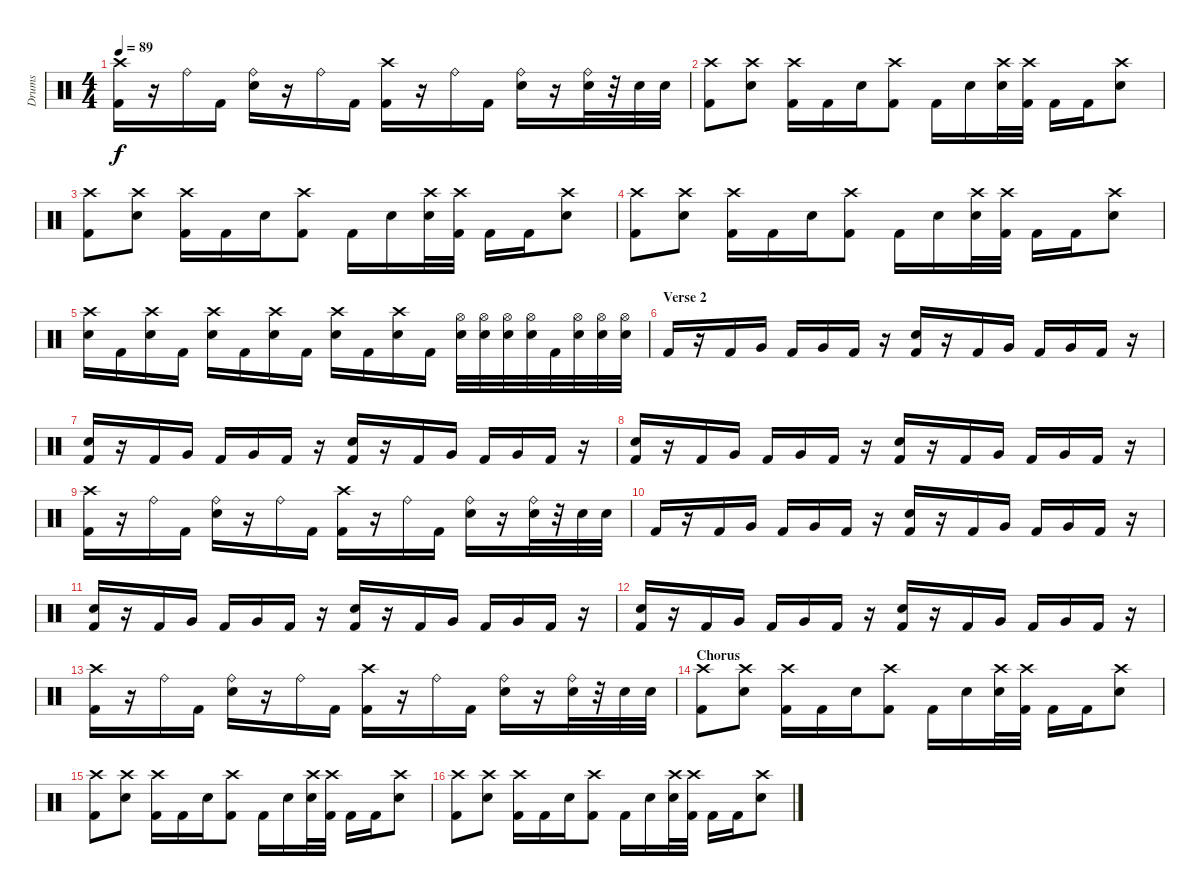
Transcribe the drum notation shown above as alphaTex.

\track ("Drums" "Drums") {instrument percussion}
\staff {score}
\articulation defaults
\ts (4 4)
\tempo 89
\clef neutral
\ks c
("Crash high (hit)" "Kick (hit) 2").16{dy f} r.16 "Ride (bell)".16 "Kick (hit) 2".16 ("Ride (bell)" "Electric Snare (hit)").16 r.16 "Ride (bell)".16 "Kick (hit) 2".16 ("Crash high (hit)" "Kick (hit) 2").16 r.16 "Ride (bell)".16 "Kick (hit) 2".16 ("Ride (bell)" "Electric Snare (hit)").16 r.16 ("Ride (bell)" "Electric Snare (hit)").32 r.32 "Electric Snare (hit)".32 "Electric Snare (hit)".32 |
("Crash high (hit)" "Kick (hit) 2").8 ("Crash high (hit)" "Electric Snare (hit)").8 ("Crash high (hit)" "Kick (hit) 2").16 "Kick (hit) 2".16 "Electric Snare (hit)".16 ("Crash high (hit)" "Kick (hit) 2").8 "Kick (hit) 2".16 "Electric Snare (hit)".16 ("Crash high (hit)" "Electric Snare (hit)").32 ("Crash high (hit)" "Kick (hit) 2").32 "Kick (hit) 2".16 "Kick (hit) 2".16 ("Crash high (hit)" "Electric Snare (hit)").8 |
("Crash high (hit)" "Kick (hit) 2").8 ("Crash high (hit)" "Electric Snare (hit)").8 ("Crash high (hit)" "Kick (hit) 2").16 "Kick (hit) 2".16 "Electric Snare (hit)".16 ("Crash high (hit)" "Kick (hit) 2").8 "Kick (hit) 2".16 "Electric Snare (hit)".16 ("Crash high (hit)" "Electric Snare (hit)").32 ("Crash high (hit)" "Kick (hit) 2").32 "Kick (hit) 2".16 "Kick (hit) 2".16 ("Crash high (hit)" "Electric Snare (hit)").8 |
("Crash high (hit)" "Kick (hit) 2").8 ("Crash high (hit)" "Electric Snare (hit)").8 ("Crash high (hit)" "Kick (hit) 2").16 "Kick (hit) 2".16 "Electric Snare (hit)".16 ("Crash high (hit)" "Kick (hit) 2").8 "Kick (hit) 2".16 "Electric Snare (hit)".16 ("Crash high (hit)" "Electric Snare (hit)").32 ("Crash high (hit)" "Kick (hit) 2").32 "Kick (hit) 2".16 "Kick (hit) 2".16 ("Crash high (hit)" "Electric Snare (hit)").8 |
("Crash high (hit)" "Electric Snare (hit)").16 "Kick (hit) 2".16 ("Crash high (hit)" "Electric Snare (hit)").16 "Kick (hit) 2".16 ("Crash high (hit)" "Electric Snare (hit)").16 "Kick (hit) 2".16 ("Crash high (hit)" "Electric Snare (hit)").16 "Kick (hit) 2".16 ("Crash high (hit)" "Electric Snare (hit)").16 "Kick (hit) 2".16 ("Crash high (hit)" "Electric Snare (hit)").16 "Kick (hit) 2".16 ("Hi-Hat (open)" "Electric Snare (hit)").32 ("Hi-Hat (open)" "Electric Snare (hit)").32 ("Hi-Hat (open)" "Electric Snare (hit)").32 ("Hi-Hat (open)" "Electric Snare (hit)").32 "Kick (hit) 2".32 ("Hi-Hat (open)" "Electric Snare (hit)").32 ("Hi-Hat (open)" "Electric Snare (hit)").32 ("Hi-Hat (open)" "Electric Snare (hit)").32 |
\section ("" "Verse 2")
"Kick (hit) 2".16 r.16 "Kick (hit) 2".16 "Very Low Tom (hit)".16 "Kick (hit) 2".16 "Very Low Tom (hit)".16 "Kick (hit) 2".16 r.16 ("Electric Snare (hit)" "Kick (hit) 2").16 r.16 "Kick (hit) 2".16 "Very Low Tom (hit)".16 "Kick (hit) 2".16 "Very Low Tom (hit)".16 "Kick (hit) 2".16 r.16 |
("Electric Snare (hit)" "Kick (hit) 2").16 r.16 "Kick (hit) 2".16 "Very Low Tom (hit)".16 "Kick (hit) 2".16 "Very Low Tom (hit)".16 "Kick (hit) 2".16 r.16 ("Electric Snare (hit)" "Kick (hit) 2").16 r.16 "Kick (hit) 2".16 "Very Low Tom (hit)".16 "Kick (hit) 2".16 "Very Low Tom (hit)".16 "Kick (hit) 2".16 r.16 |
("Electric Snare (hit)" "Kick (hit) 2").16 r.16 "Kick (hit) 2".16 "Very Low Tom (hit)".16 "Kick (hit) 2".16 "Very Low Tom (hit)".16 "Kick (hit) 2".16 r.16 ("Electric Snare (hit)" "Kick (hit) 2").16 r.16 "Kick (hit) 2".16 "Very Low Tom (hit)".16 "Kick (hit) 2".16 "Very Low Tom (hit)".16 "Kick (hit) 2".16 r.16 |
("Crash high (hit)" "Kick (hit) 2").16 r.16 "Ride (bell)".16 "Kick (hit) 2".16 ("Ride (bell)" "Electric Snare (hit)").16 r.16 "Ride (bell)".16 "Kick (hit) 2".16 ("Crash high (hit)" "Kick (hit) 2").16 r.16 "Ride (bell)".16 "Kick (hit) 2".16 ("Ride (bell)" "Electric Snare (hit)").16 r.16 ("Ride (bell)" "Electric Snare (hit)").32 r.32 "Electric Snare (hit)".32 "Electric Snare (hit)".32 |
"Kick (hit) 2".16 r.16 "Kick (hit) 2".16 "Very Low Tom (hit)".16 "Kick (hit) 2".16 "Very Low Tom (hit)".16 "Kick (hit) 2".16 r.16 ("Electric Snare (hit)" "Kick (hit) 2").16 r.16 "Kick (hit) 2".16 "Very Low Tom (hit)".16 "Kick (hit) 2".16 "Very Low Tom (hit)".16 "Kick (hit) 2".16 r.16 |
("Electric Snare (hit)" "Kick (hit) 2").16 r.16 "Kick (hit) 2".16 "Very Low Tom (hit)".16 "Kick (hit) 2".16 "Very Low Tom (hit)".16 "Kick (hit) 2".16 r.16 ("Electric Snare (hit)" "Kick (hit) 2").16 r.16 "Kick (hit) 2".16 "Very Low Tom (hit)".16 "Kick (hit) 2".16 "Very Low Tom (hit)".16 "Kick (hit) 2".16 r.16 |
("Electric Snare (hit)" "Kick (hit) 2").16 r.16 "Kick (hit) 2".16 "Very Low Tom (hit)".16 "Kick (hit) 2".16 "Very Low Tom (hit)".16 "Kick (hit) 2".16 r.16 ("Electric Snare (hit)" "Kick (hit) 2").16 r.16 "Kick (hit) 2".16 "Very Low Tom (hit)".16 "Kick (hit) 2".16 "Very Low Tom (hit)".16 "Kick (hit) 2".16 r.16 |
("Crash high (hit)" "Kick (hit) 2").16 r.16 "Ride (bell)".16 "Kick (hit) 2".16 ("Ride (bell)" "Electric Snare (hit)").16 r.16 "Ride (bell)".16 "Kick (hit) 2".16 ("Crash high (hit)" "Kick (hit) 2").16 r.16 "Ride (bell)".16 "Kick (hit) 2".16 ("Ride (bell)" "Electric Snare (hit)").16 r.16 ("Ride (bell)" "Electric Snare (hit)").32 r.32 "Electric Snare (hit)".32 "Electric Snare (hit)".32 |
\section ("" "Chorus")
("Crash high (hit)" "Kick (hit) 2").8 ("Crash high (hit)" "Electric Snare (hit)").8 ("Crash high (hit)" "Kick (hit) 2").16 "Kick (hit) 2".16 "Electric Snare (hit)".16 ("Crash high (hit)" "Kick (hit) 2").8 "Kick (hit) 2".16 "Electric Snare (hit)".16 ("Crash high (hit)" "Electric Snare (hit)").32 ("Crash high (hit)" "Kick (hit) 2").32 "Kick (hit) 2".16 "Kick (hit) 2".16 ("Crash high (hit)" "Electric Snare (hit)").8 |
("Crash high (hit)" "Kick (hit) 2").8 ("Crash high (hit)" "Electric Snare (hit)").8 ("Crash high (hit)" "Kick (hit) 2").16 "Kick (hit) 2".16 "Electric Snare (hit)".16 ("Crash high (hit)" "Kick (hit) 2").8 "Kick (hit) 2".16 "Electric Snare (hit)".16 ("Crash high (hit)" "Electric Snare (hit)").32 ("Crash high (hit)" "Kick (hit) 2").32 "Kick (hit) 2".16 "Kick (hit) 2".16 ("Crash high (hit)" "Electric Snare (hit)").8 |
("Crash high (hit)" "Kick (hit) 2").8 ("Crash high (hit)" "Electric Snare (hit)").8 ("Crash high (hit)" "Kick (hit) 2").16 "Kick (hit) 2".16 "Electric Snare (hit)".16 ("Crash high (hit)" "Kick (hit) 2").8 "Kick (hit) 2".16 "Electric Snare (hit)".16 ("Crash high (hit)" "Electric Snare (hit)").32 ("Crash high (hit)" "Kick (hit) 2").32 "Kick (hit) 2".16 "Kick (hit) 2".16 ("Crash high (hit)" "Electric Snare (hit)").8
